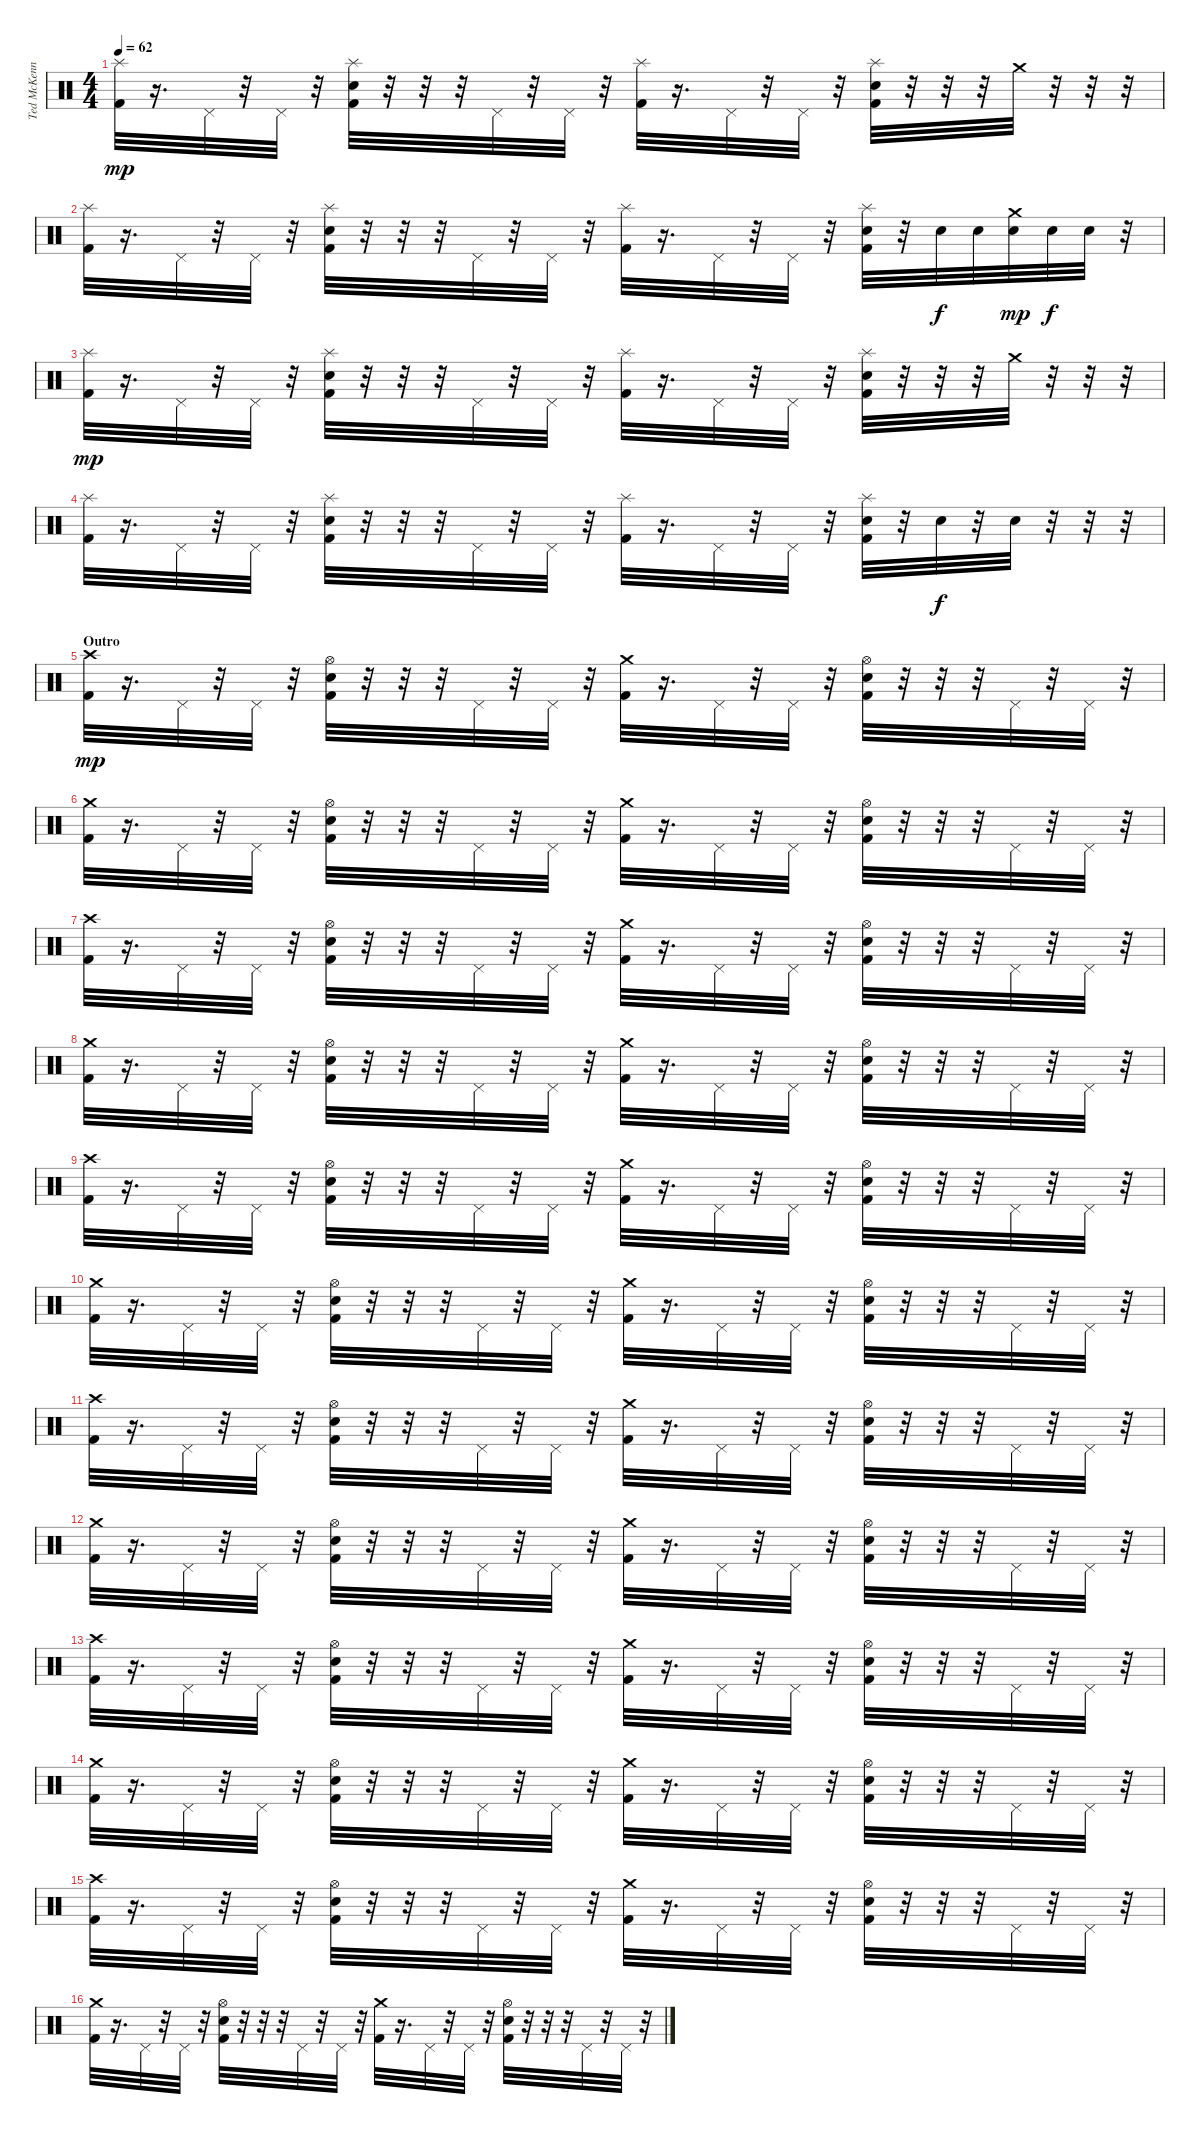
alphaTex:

\track ("Ted McKenna" "Ted McKenn") {instrument percussion}
\staff {score}
\articulation defaults
\ts (4 4)
\tempo 62
\clef neutral
\ks c
("Splash (hit)" "Kick (hit) 2").32{dy mp} r.16{d} "Pedal Hi-Hat (hit)".32 r.32 "Pedal Hi-Hat (hit)".32 r.32 ("Splash (hit)" "Electric Snare (hit)" "Kick (hit) 2").32 r.32 r.32 r.32 "Pedal Hi-Hat (hit)".32 r.32 "Pedal Hi-Hat (hit)".32 r.32 ("Splash (hit)" "Kick (hit) 2").32 r.16{d} "Pedal Hi-Hat (hit)".32 r.32 "Pedal Hi-Hat (hit)".32 r.32 ("Splash (hit)" "Electric Snare (hit)" "Kick (hit) 2").32 r.32 r.32 r.32 "Crash medium (hit)".32 r.32 r.32 r.32 |
("Splash (hit)" "Kick (hit) 2").32 r.16{d} "Pedal Hi-Hat (hit)".32 r.32 "Pedal Hi-Hat (hit)".32 r.32 ("Splash (hit)" "Electric Snare (hit)" "Kick (hit) 2").32 r.32 r.32 r.32 "Pedal Hi-Hat (hit)".32 r.32 "Pedal Hi-Hat (hit)".32 r.32 ("Splash (hit)" "Kick (hit) 2").32 r.16{d} "Pedal Hi-Hat (hit)".32 r.32 "Pedal Hi-Hat (hit)".32 r.32 ("Splash (hit)" "Electric Snare (hit)" "Kick (hit) 2").32 r.32 "Electric Snare (hit)".32{dy f} "Electric Snare (hit)".32 ("Crash medium (hit)" "Electric Snare (hit)").32{dy mp} "Electric Snare (hit)".32{dy f} "Electric Snare (hit)".32 r.32 |
("Splash (hit)" "Kick (hit) 2").32{dy mp} r.16{d} "Pedal Hi-Hat (hit)".32 r.32 "Pedal Hi-Hat (hit)".32 r.32 ("Splash (hit)" "Electric Snare (hit)" "Kick (hit) 2").32 r.32 r.32 r.32 "Pedal Hi-Hat (hit)".32 r.32 "Pedal Hi-Hat (hit)".32 r.32 ("Splash (hit)" "Kick (hit) 2").32 r.16{d} "Pedal Hi-Hat (hit)".32 r.32 "Pedal Hi-Hat (hit)".32 r.32 ("Splash (hit)" "Electric Snare (hit)" "Kick (hit) 2").32 r.32 r.32 r.32 "Crash medium (hit)".32 r.32 r.32 r.32 |
("Splash (hit)" "Kick (hit) 2").32 r.16{d} "Pedal Hi-Hat (hit)".32 r.32 "Pedal Hi-Hat (hit)".32 r.32 ("Splash (hit)" "Electric Snare (hit)" "Kick (hit) 2").32 r.32 r.32 r.32 "Pedal Hi-Hat (hit)".32 r.32 "Pedal Hi-Hat (hit)".32 r.32 ("Splash (hit)" "Kick (hit) 2").32 r.16{d} "Pedal Hi-Hat (hit)".32 r.32 "Pedal Hi-Hat (hit)".32 r.32 ("Splash (hit)" "Electric Snare (hit)" "Kick (hit) 2").32 r.32 "Electric Snare (hit)".32{dy f} r.32 "Electric Snare (hit)".32 r.32 r.32 r.32 |
\section ("" "Outro")
("Crash high (hit)" "Kick (hit) 2").32{dy mp} r.16{d} "Pedal Hi-Hat (hit)".32 r.32 "Pedal Hi-Hat (hit)".32 r.32 ("Hi-Hat (open)" "Electric Snare (hit)" "Kick (hit) 2").32 r.32 r.32 r.32 "Pedal Hi-Hat (hit)".32 r.32 "Pedal Hi-Hat (hit)".32 r.32 ("Crash medium (hit)" "Kick (hit) 2").32 r.16{d} "Pedal Hi-Hat (hit)".32 r.32 "Pedal Hi-Hat (hit)".32 r.32 ("Hi-Hat (open)" "Electric Snare (hit)" "Kick (hit) 2").32 r.32 r.32 r.32 "Pedal Hi-Hat (hit)".32 r.32 "Pedal Hi-Hat (hit)".32 r.32 |
("Crash medium (hit)" "Kick (hit) 2").32 r.16{d} "Pedal Hi-Hat (hit)".32 r.32 "Pedal Hi-Hat (hit)".32 r.32 ("Hi-Hat (open)" "Electric Snare (hit)" "Kick (hit) 2").32 r.32 r.32 r.32 "Pedal Hi-Hat (hit)".32 r.32 "Pedal Hi-Hat (hit)".32 r.32 ("Crash medium (hit)" "Kick (hit) 2").32 r.16{d} "Pedal Hi-Hat (hit)".32 r.32 "Pedal Hi-Hat (hit)".32 r.32 ("Hi-Hat (open)" "Electric Snare (hit)" "Kick (hit) 2").32 r.32 r.32 r.32 "Pedal Hi-Hat (hit)".32 r.32 "Pedal Hi-Hat (hit)".32 r.32 |
("Crash high (hit)" "Kick (hit) 2").32 r.16{d} "Pedal Hi-Hat (hit)".32 r.32 "Pedal Hi-Hat (hit)".32 r.32 ("Hi-Hat (open)" "Electric Snare (hit)" "Kick (hit) 2").32 r.32 r.32 r.32 "Pedal Hi-Hat (hit)".32 r.32 "Pedal Hi-Hat (hit)".32 r.32 ("Crash medium (hit)" "Kick (hit) 2").32 r.16{d} "Pedal Hi-Hat (hit)".32 r.32 "Pedal Hi-Hat (hit)".32 r.32 ("Hi-Hat (open)" "Electric Snare (hit)" "Kick (hit) 2").32 r.32 r.32 r.32 "Pedal Hi-Hat (hit)".32 r.32 "Pedal Hi-Hat (hit)".32 r.32 |
("Crash medium (hit)" "Kick (hit) 2").32 r.16{d} "Pedal Hi-Hat (hit)".32 r.32 "Pedal Hi-Hat (hit)".32 r.32 ("Hi-Hat (open)" "Electric Snare (hit)" "Kick (hit) 2").32 r.32 r.32 r.32 "Pedal Hi-Hat (hit)".32 r.32 "Pedal Hi-Hat (hit)".32 r.32 ("Crash medium (hit)" "Kick (hit) 2").32 r.16{d} "Pedal Hi-Hat (hit)".32 r.32 "Pedal Hi-Hat (hit)".32 r.32 ("Hi-Hat (open)" "Electric Snare (hit)" "Kick (hit) 2").32 r.32 r.32 r.32 "Pedal Hi-Hat (hit)".32 r.32 "Pedal Hi-Hat (hit)".32 r.32 |
("Crash high (hit)" "Kick (hit) 2").32 r.16{d} "Pedal Hi-Hat (hit)".32 r.32 "Pedal Hi-Hat (hit)".32 r.32 ("Hi-Hat (open)" "Electric Snare (hit)" "Kick (hit) 2").32 r.32 r.32 r.32 "Pedal Hi-Hat (hit)".32 r.32 "Pedal Hi-Hat (hit)".32 r.32 ("Crash medium (hit)" "Kick (hit) 2").32 r.16{d} "Pedal Hi-Hat (hit)".32 r.32 "Pedal Hi-Hat (hit)".32 r.32 ("Hi-Hat (open)" "Electric Snare (hit)" "Kick (hit) 2").32 r.32 r.32 r.32 "Pedal Hi-Hat (hit)".32 r.32 "Pedal Hi-Hat (hit)".32 r.32 |
("Crash medium (hit)" "Kick (hit) 2").32 r.16{d} "Pedal Hi-Hat (hit)".32 r.32 "Pedal Hi-Hat (hit)".32 r.32 ("Hi-Hat (open)" "Electric Snare (hit)" "Kick (hit) 2").32 r.32 r.32 r.32 "Pedal Hi-Hat (hit)".32 r.32 "Pedal Hi-Hat (hit)".32 r.32 ("Crash medium (hit)" "Kick (hit) 2").32 r.16{d} "Pedal Hi-Hat (hit)".32 r.32 "Pedal Hi-Hat (hit)".32 r.32 ("Hi-Hat (open)" "Electric Snare (hit)" "Kick (hit) 2").32 r.32 r.32 r.32 "Pedal Hi-Hat (hit)".32 r.32 "Pedal Hi-Hat (hit)".32 r.32 |
("Crash high (hit)" "Kick (hit) 2").32 r.16{d} "Pedal Hi-Hat (hit)".32 r.32 "Pedal Hi-Hat (hit)".32 r.32 ("Hi-Hat (open)" "Electric Snare (hit)" "Kick (hit) 2").32 r.32 r.32 r.32 "Pedal Hi-Hat (hit)".32 r.32 "Pedal Hi-Hat (hit)".32 r.32 ("Crash medium (hit)" "Kick (hit) 2").32 r.16{d} "Pedal Hi-Hat (hit)".32 r.32 "Pedal Hi-Hat (hit)".32 r.32 ("Hi-Hat (open)" "Electric Snare (hit)" "Kick (hit) 2").32 r.32 r.32 r.32 "Pedal Hi-Hat (hit)".32 r.32 "Pedal Hi-Hat (hit)".32 r.32 |
("Crash medium (hit)" "Kick (hit) 2").32 r.16{d} "Pedal Hi-Hat (hit)".32 r.32 "Pedal Hi-Hat (hit)".32 r.32 ("Hi-Hat (open)" "Electric Snare (hit)" "Kick (hit) 2").32 r.32 r.32 r.32 "Pedal Hi-Hat (hit)".32 r.32 "Pedal Hi-Hat (hit)".32 r.32 ("Crash medium (hit)" "Kick (hit) 2").32 r.16{d} "Pedal Hi-Hat (hit)".32 r.32 "Pedal Hi-Hat (hit)".32 r.32 ("Hi-Hat (open)" "Electric Snare (hit)" "Kick (hit) 2").32 r.32 r.32 r.32 "Pedal Hi-Hat (hit)".32 r.32 "Pedal Hi-Hat (hit)".32 r.32 |
("Crash high (hit)" "Kick (hit) 2").32 r.16{d} "Pedal Hi-Hat (hit)".32 r.32 "Pedal Hi-Hat (hit)".32 r.32 ("Hi-Hat (open)" "Electric Snare (hit)" "Kick (hit) 2").32 r.32 r.32 r.32 "Pedal Hi-Hat (hit)".32 r.32 "Pedal Hi-Hat (hit)".32 r.32 ("Crash medium (hit)" "Kick (hit) 2").32 r.16{d} "Pedal Hi-Hat (hit)".32 r.32 "Pedal Hi-Hat (hit)".32 r.32 ("Hi-Hat (open)" "Electric Snare (hit)" "Kick (hit) 2").32 r.32 r.32 r.32 "Pedal Hi-Hat (hit)".32 r.32 "Pedal Hi-Hat (hit)".32 r.32 |
("Crash medium (hit)" "Kick (hit) 2").32 r.16{d} "Pedal Hi-Hat (hit)".32 r.32 "Pedal Hi-Hat (hit)".32 r.32 ("Hi-Hat (open)" "Electric Snare (hit)" "Kick (hit) 2").32 r.32 r.32 r.32 "Pedal Hi-Hat (hit)".32 r.32 "Pedal Hi-Hat (hit)".32 r.32 ("Crash medium (hit)" "Kick (hit) 2").32 r.16{d} "Pedal Hi-Hat (hit)".32 r.32 "Pedal Hi-Hat (hit)".32 r.32 ("Hi-Hat (open)" "Electric Snare (hit)" "Kick (hit) 2").32 r.32 r.32 r.32 "Pedal Hi-Hat (hit)".32 r.32 "Pedal Hi-Hat (hit)".32 r.32 |
("Crash high (hit)" "Kick (hit) 2").32 r.16{d} "Pedal Hi-Hat (hit)".32 r.32 "Pedal Hi-Hat (hit)".32 r.32 ("Hi-Hat (open)" "Electric Snare (hit)" "Kick (hit) 2").32 r.32 r.32 r.32 "Pedal Hi-Hat (hit)".32 r.32 "Pedal Hi-Hat (hit)".32 r.32 ("Crash medium (hit)" "Kick (hit) 2").32 r.16{d} "Pedal Hi-Hat (hit)".32 r.32 "Pedal Hi-Hat (hit)".32 r.32 ("Hi-Hat (open)" "Electric Snare (hit)" "Kick (hit) 2").32 r.32 r.32 r.32 "Pedal Hi-Hat (hit)".32 r.32 "Pedal Hi-Hat (hit)".32 r.32 |
("Crash medium (hit)" "Kick (hit) 2").32 r.16{d} "Pedal Hi-Hat (hit)".32 r.32 "Pedal Hi-Hat (hit)".32 r.32 ("Hi-Hat (open)" "Electric Snare (hit)" "Kick (hit) 2").32 r.32 r.32 r.32 "Pedal Hi-Hat (hit)".32 r.32 "Pedal Hi-Hat (hit)".32 r.32 ("Crash medium (hit)" "Kick (hit) 2").32 r.16{d} "Pedal Hi-Hat (hit)".32 r.32 "Pedal Hi-Hat (hit)".32 r.32 ("Hi-Hat (open)" "Electric Snare (hit)" "Kick (hit) 2").32 r.32 r.32 r.32 "Pedal Hi-Hat (hit)".32 r.32 "Pedal Hi-Hat (hit)".32 r.32
